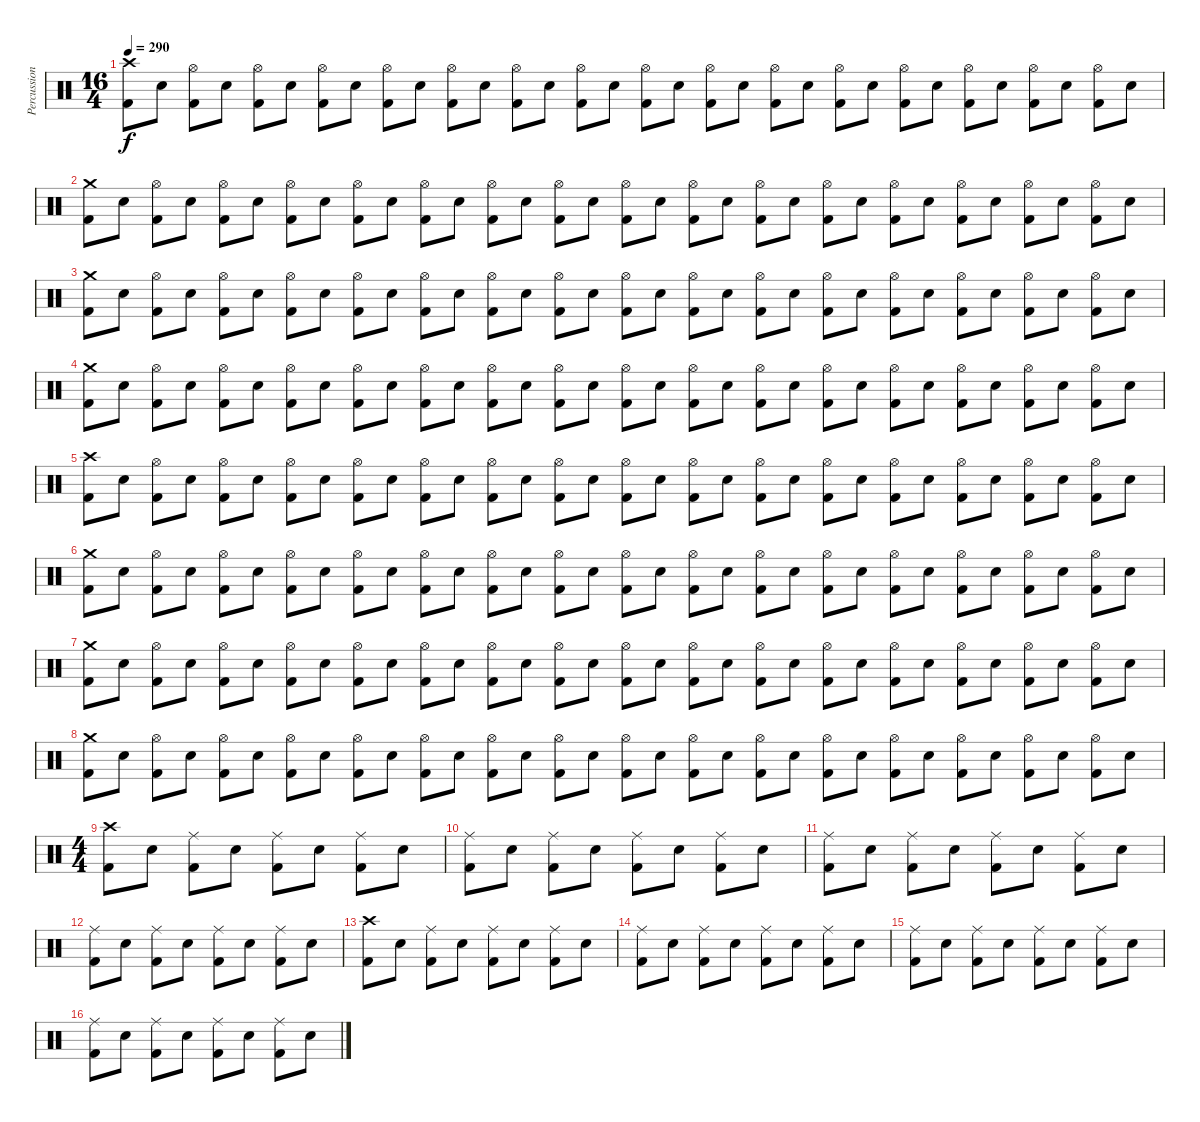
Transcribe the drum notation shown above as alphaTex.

\track ("Percussion" "Percussion") {instrument percussion}
\staff {score}
\articulation defaults
\ts (16 4)
\tempo 290
\clef neutral
\ks c
("Crash high (hit)" "Kick (hit) 2").8{dy f} "Snare (hit) 2".8 ("Hi-Hat (open)" "Kick (hit) 2").8 "Snare (hit) 2".8 ("Hi-Hat (open)" "Kick (hit) 2").8 "Snare (hit) 2".8 ("Hi-Hat (open)" "Kick (hit) 2").8 "Snare (hit) 2".8 ("Hi-Hat (open)" "Kick (hit) 2").8 "Snare (hit) 2".8 ("Hi-Hat (open)" "Kick (hit) 2").8 "Snare (hit) 2".8 ("Hi-Hat (open)" "Kick (hit) 2").8 "Snare (hit) 2".8 ("Hi-Hat (open)" "Kick (hit) 2").8 "Snare (hit) 2".8 ("Hi-Hat (open)" "Kick (hit) 2").8 "Snare (hit) 2".8 ("Hi-Hat (open)" "Kick (hit) 2").8 "Snare (hit) 2".8 ("Hi-Hat (open)" "Kick (hit) 2").8 "Snare (hit) 2".8 ("Hi-Hat (open)" "Kick (hit) 2").8 "Snare (hit) 2".8 ("Hi-Hat (open)" "Kick (hit) 2").8 "Snare (hit) 2".8 ("Hi-Hat (open)" "Kick (hit) 2").8 "Snare (hit) 2".8 ("Hi-Hat (open)" "Kick (hit) 2").8 "Snare (hit) 2".8 ("Hi-Hat (open)" "Kick (hit) 2").8 "Snare (hit) 2".8 |
("Crash medium (hit)" "Kick (hit) 2").8 "Snare (hit) 2".8 ("Hi-Hat (open)" "Kick (hit) 2").8 "Snare (hit) 2".8 ("Hi-Hat (open)" "Kick (hit) 2").8 "Snare (hit) 2".8 ("Hi-Hat (open)" "Kick (hit) 2").8 "Snare (hit) 2".8 ("Hi-Hat (open)" "Kick (hit) 2").8 "Snare (hit) 2".8 ("Hi-Hat (open)" "Kick (hit) 2").8 "Snare (hit) 2".8 ("Hi-Hat (open)" "Kick (hit) 2").8 "Snare (hit) 2".8 ("Hi-Hat (open)" "Kick (hit) 2").8 "Snare (hit) 2".8 ("Hi-Hat (open)" "Kick (hit) 2").8 "Snare (hit) 2".8 ("Hi-Hat (open)" "Kick (hit) 2").8 "Snare (hit) 2".8 ("Hi-Hat (open)" "Kick (hit) 2").8 "Snare (hit) 2".8 ("Hi-Hat (open)" "Kick (hit) 2").8 "Snare (hit) 2".8 ("Hi-Hat (open)" "Kick (hit) 2").8 "Snare (hit) 2".8 ("Hi-Hat (open)" "Kick (hit) 2").8 "Snare (hit) 2".8 ("Hi-Hat (open)" "Kick (hit) 2").8 "Snare (hit) 2".8 ("Hi-Hat (open)" "Kick (hit) 2").8 "Snare (hit) 2".8 |
("Crash medium (hit)" "Kick (hit) 2").8 "Snare (hit) 2".8 ("Hi-Hat (open)" "Kick (hit) 2").8 "Snare (hit) 2".8 ("Hi-Hat (open)" "Kick (hit) 2").8 "Snare (hit) 2".8 ("Hi-Hat (open)" "Kick (hit) 2").8 "Snare (hit) 2".8 ("Hi-Hat (open)" "Kick (hit) 2").8 "Snare (hit) 2".8 ("Hi-Hat (open)" "Kick (hit) 2").8 "Snare (hit) 2".8 ("Hi-Hat (open)" "Kick (hit) 2").8 "Snare (hit) 2".8 ("Hi-Hat (open)" "Kick (hit) 2").8 "Snare (hit) 2".8 ("Hi-Hat (open)" "Kick (hit) 2").8 "Snare (hit) 2".8 ("Hi-Hat (open)" "Kick (hit) 2").8 "Snare (hit) 2".8 ("Hi-Hat (open)" "Kick (hit) 2").8 "Snare (hit) 2".8 ("Hi-Hat (open)" "Kick (hit) 2").8 "Snare (hit) 2".8 ("Hi-Hat (open)" "Kick (hit) 2").8 "Snare (hit) 2".8 ("Hi-Hat (open)" "Kick (hit) 2").8 "Snare (hit) 2".8 ("Hi-Hat (open)" "Kick (hit) 2").8 "Snare (hit) 2".8 ("Hi-Hat (open)" "Kick (hit) 2").8 "Snare (hit) 2".8 |
("Crash medium (hit)" "Kick (hit) 2").8 "Snare (hit) 2".8 ("Hi-Hat (open)" "Kick (hit) 2").8 "Snare (hit) 2".8 ("Hi-Hat (open)" "Kick (hit) 2").8 "Snare (hit) 2".8 ("Hi-Hat (open)" "Kick (hit) 2").8 "Snare (hit) 2".8 ("Hi-Hat (open)" "Kick (hit) 2").8 "Snare (hit) 2".8 ("Hi-Hat (open)" "Kick (hit) 2").8 "Snare (hit) 2".8 ("Hi-Hat (open)" "Kick (hit) 2").8 "Snare (hit) 2".8 ("Hi-Hat (open)" "Kick (hit) 2").8 "Snare (hit) 2".8 ("Hi-Hat (open)" "Kick (hit) 2").8 "Snare (hit) 2".8 ("Hi-Hat (open)" "Kick (hit) 2").8 "Snare (hit) 2".8 ("Hi-Hat (open)" "Kick (hit) 2").8 "Snare (hit) 2".8 ("Hi-Hat (open)" "Kick (hit) 2").8 "Snare (hit) 2".8 ("Hi-Hat (open)" "Kick (hit) 2").8 "Snare (hit) 2".8 ("Hi-Hat (open)" "Kick (hit) 2").8 "Snare (hit) 2".8 ("Hi-Hat (open)" "Kick (hit) 2").8 "Snare (hit) 2".8 ("Hi-Hat (open)" "Kick (hit) 2").8 "Snare (hit) 2".8 |
("Crash high (hit)" "Kick (hit) 2").8 "Snare (hit) 2".8 ("Hi-Hat (open)" "Kick (hit) 2").8 "Snare (hit) 2".8 ("Hi-Hat (open)" "Kick (hit) 2").8 "Snare (hit) 2".8 ("Hi-Hat (open)" "Kick (hit) 2").8 "Snare (hit) 2".8 ("Hi-Hat (open)" "Kick (hit) 2").8 "Snare (hit) 2".8 ("Hi-Hat (open)" "Kick (hit) 2").8 "Snare (hit) 2".8 ("Hi-Hat (open)" "Kick (hit) 2").8 "Snare (hit) 2".8 ("Hi-Hat (open)" "Kick (hit) 2").8 "Snare (hit) 2".8 ("Hi-Hat (open)" "Kick (hit) 2").8 "Snare (hit) 2".8 ("Hi-Hat (open)" "Kick (hit) 2").8 "Snare (hit) 2".8 ("Hi-Hat (open)" "Kick (hit) 2").8 "Snare (hit) 2".8 ("Hi-Hat (open)" "Kick (hit) 2").8 "Snare (hit) 2".8 ("Hi-Hat (open)" "Kick (hit) 2").8 "Snare (hit) 2".8 ("Hi-Hat (open)" "Kick (hit) 2").8 "Snare (hit) 2".8 ("Hi-Hat (open)" "Kick (hit) 2").8 "Snare (hit) 2".8 ("Hi-Hat (open)" "Kick (hit) 2").8 "Snare (hit) 2".8 |
("Crash medium (hit)" "Kick (hit) 2").8 "Snare (hit) 2".8 ("Hi-Hat (open)" "Kick (hit) 2").8 "Snare (hit) 2".8 ("Hi-Hat (open)" "Kick (hit) 2").8 "Snare (hit) 2".8 ("Hi-Hat (open)" "Kick (hit) 2").8 "Snare (hit) 2".8 ("Hi-Hat (open)" "Kick (hit) 2").8 "Snare (hit) 2".8 ("Hi-Hat (open)" "Kick (hit) 2").8 "Snare (hit) 2".8 ("Hi-Hat (open)" "Kick (hit) 2").8 "Snare (hit) 2".8 ("Hi-Hat (open)" "Kick (hit) 2").8 "Snare (hit) 2".8 ("Hi-Hat (open)" "Kick (hit) 2").8 "Snare (hit) 2".8 ("Hi-Hat (open)" "Kick (hit) 2").8 "Snare (hit) 2".8 ("Hi-Hat (open)" "Kick (hit) 2").8 "Snare (hit) 2".8 ("Hi-Hat (open)" "Kick (hit) 2").8 "Snare (hit) 2".8 ("Hi-Hat (open)" "Kick (hit) 2").8 "Snare (hit) 2".8 ("Hi-Hat (open)" "Kick (hit) 2").8 "Snare (hit) 2".8 ("Hi-Hat (open)" "Kick (hit) 2").8 "Snare (hit) 2".8 ("Hi-Hat (open)" "Kick (hit) 2").8 "Snare (hit) 2".8 |
("Crash medium (hit)" "Kick (hit) 2").8 "Snare (hit) 2".8 ("Hi-Hat (open)" "Kick (hit) 2").8 "Snare (hit) 2".8 ("Hi-Hat (open)" "Kick (hit) 2").8 "Snare (hit) 2".8 ("Hi-Hat (open)" "Kick (hit) 2").8 "Snare (hit) 2".8 ("Hi-Hat (open)" "Kick (hit) 2").8 "Snare (hit) 2".8 ("Hi-Hat (open)" "Kick (hit) 2").8 "Snare (hit) 2".8 ("Hi-Hat (open)" "Kick (hit) 2").8 "Snare (hit) 2".8 ("Hi-Hat (open)" "Kick (hit) 2").8 "Snare (hit) 2".8 ("Hi-Hat (open)" "Kick (hit) 2").8 "Snare (hit) 2".8 ("Hi-Hat (open)" "Kick (hit) 2").8 "Snare (hit) 2".8 ("Hi-Hat (open)" "Kick (hit) 2").8 "Snare (hit) 2".8 ("Hi-Hat (open)" "Kick (hit) 2").8 "Snare (hit) 2".8 ("Hi-Hat (open)" "Kick (hit) 2").8 "Snare (hit) 2".8 ("Hi-Hat (open)" "Kick (hit) 2").8 "Snare (hit) 2".8 ("Hi-Hat (open)" "Kick (hit) 2").8 "Snare (hit) 2".8 ("Hi-Hat (open)" "Kick (hit) 2").8 "Snare (hit) 2".8 |
("Crash medium (hit)" "Kick (hit) 2").8 "Snare (hit) 2".8 ("Hi-Hat (open)" "Kick (hit) 2").8 "Snare (hit) 2".8 ("Hi-Hat (open)" "Kick (hit) 2").8 "Snare (hit) 2".8 ("Hi-Hat (open)" "Kick (hit) 2").8 "Snare (hit) 2".8 ("Hi-Hat (open)" "Kick (hit) 2").8 "Snare (hit) 2".8 ("Hi-Hat (open)" "Kick (hit) 2").8 "Snare (hit) 2".8 ("Hi-Hat (open)" "Kick (hit) 2").8 "Snare (hit) 2".8 ("Hi-Hat (open)" "Kick (hit) 2").8 "Snare (hit) 2".8 ("Hi-Hat (open)" "Kick (hit) 2").8 "Snare (hit) 2".8 ("Hi-Hat (open)" "Kick (hit) 2").8 "Snare (hit) 2".8 ("Hi-Hat (open)" "Kick (hit) 2").8 "Snare (hit) 2".8 ("Hi-Hat (open)" "Kick (hit) 2").8 "Snare (hit) 2".8 ("Hi-Hat (open)" "Kick (hit) 2").8 "Snare (hit) 2".8 ("Hi-Hat (open)" "Kick (hit) 2").8 "Snare (hit) 2".8 ("Hi-Hat (open)" "Kick (hit) 2").8 "Snare (hit) 2".8 ("Hi-Hat (open)" "Kick (hit) 2").8 "Snare (hit) 2".8 |
\ts (4 4)
("Crash high (hit)" "Kick (hit) 2").8 "Snare (hit) 2".8 ("Ride (middle)" "Kick (hit) 2").8 "Snare (hit) 2".8 ("Ride (middle)" "Kick (hit) 2").8 "Snare (hit) 2".8 ("Ride (middle)" "Kick (hit) 2").8 "Snare (hit) 2".8 |
("Ride (middle)" "Kick (hit) 2").8 "Snare (hit) 2".8 ("Ride (middle)" "Kick (hit) 2").8 "Snare (hit) 2".8 ("Ride (middle)" "Kick (hit) 2").8 "Snare (hit) 2".8 ("Ride (middle)" "Kick (hit) 2").8 "Snare (hit) 2".8 |
("Ride (middle)" "Kick (hit) 2").8 "Snare (hit) 2".8 ("Ride (middle)" "Kick (hit) 2").8 "Snare (hit) 2".8 ("Ride (middle)" "Kick (hit) 2").8 "Snare (hit) 2".8 ("Ride (middle)" "Kick (hit) 2").8 "Snare (hit) 2".8 |
("Ride (middle)" "Kick (hit) 2").8 "Snare (hit) 2".8 ("Ride (middle)" "Kick (hit) 2").8 "Snare (hit) 2".8 ("Ride (middle)" "Kick (hit) 2").8 "Snare (hit) 2".8 ("Ride (middle)" "Kick (hit) 2").8 "Snare (hit) 2".8 |
("Crash high (hit)" "Kick (hit) 2").8 "Snare (hit) 2".8 ("Ride (middle)" "Kick (hit) 2").8 "Snare (hit) 2".8 ("Ride (middle)" "Kick (hit) 2").8 "Snare (hit) 2".8 ("Ride (middle)" "Kick (hit) 2").8 "Snare (hit) 2".8 |
("Ride (middle)" "Kick (hit) 2").8 "Snare (hit) 2".8 ("Ride (middle)" "Kick (hit) 2").8 "Snare (hit) 2".8 ("Ride (middle)" "Kick (hit) 2").8 "Snare (hit) 2".8 ("Ride (middle)" "Kick (hit) 2").8 "Snare (hit) 2".8 |
("Ride (middle)" "Kick (hit) 2").8 "Snare (hit) 2".8 ("Ride (middle)" "Kick (hit) 2").8 "Snare (hit) 2".8 ("Ride (middle)" "Kick (hit) 2").8 "Snare (hit) 2".8 ("Ride (middle)" "Kick (hit) 2").8 "Snare (hit) 2".8 |
("Ride (middle)" "Kick (hit) 2").8 "Snare (hit) 2".8 ("Ride (middle)" "Kick (hit) 2").8 "Snare (hit) 2".8 ("Ride (middle)" "Kick (hit) 2").8 "Snare (hit) 2".8 ("Ride (middle)" "Kick (hit) 2").8 "Snare (hit) 2".8
